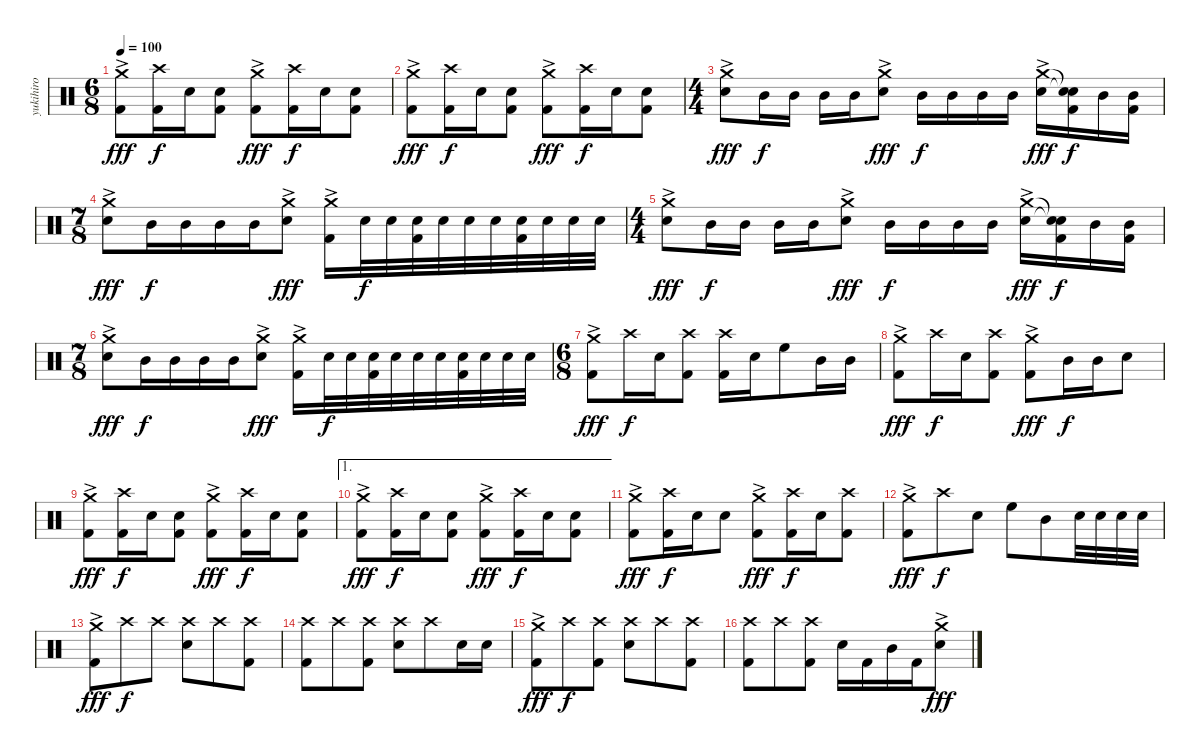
\track ("yukihiro" "yukihiro") {instrument percussion}
\staff {score}
\articulation defaults
\ts (6 8)
\tempo 100
\clef neutral
\ks c
("Crash medium (hit)"{ac} "Kick (hit) 2").8{dy fff} ("Crash high (hit)" "Kick (hit) 2").16{dy f} "Snare (hit) 2".16 ("Snare (hit) 2" "Kick (hit) 2").8 ("Crash medium (hit)"{ac} "Kick (hit) 2").8{dy fff} ("Crash high (hit)" "Kick (hit) 2").16{dy f} "Snare (hit) 2".16 ("Snare (hit) 2" "Kick (hit) 2").8 |
("Crash medium (hit)"{ac} "Kick (hit) 2").8{dy fff} ("Crash high (hit)" "Kick (hit) 2").16{dy f} "Snare (hit) 2".16 ("Snare (hit) 2" "Kick (hit) 2").8 ("Crash medium (hit)"{ac} "Kick (hit) 2").8{dy fff} ("Crash high (hit)" "Kick (hit) 2").16{dy f} "Snare (hit) 2".16 ("Snare (hit) 2" "Kick (hit) 2").8 |
\ts (4 4)
("Crash medium (hit)"{ac} "Snare (hit) 2").8{dy fff} "Mid Tom (hit)".16{dy f} "Mid Tom (hit)".16 "Mid Tom (hit)".16 "Mid Tom (hit)".16 ("Crash medium (hit)"{ac} "Snare (hit) 2").8{dy fff} "Mid Tom (hit)".16{dy f} "Mid Tom (hit)".16 "Mid Tom (hit)".16 "Mid Tom (hit)".16 ("Crash medium (hit)"{ac} "Snare (hit) 2").16{dy fff} ("Snare (hit)"{t} "Snare (hit)"{t} "Kick (hit) 2").16{dy f} "Mid Tom (hit)".16 ("Mid Tom (hit)" "Kick (hit) 2").16 |
\ts (7 8)
("Crash medium (hit)"{ac} "Snare (hit) 2").8{dy fff} "Mid Tom (hit)".16{dy f} "Mid Tom (hit)".16 "Mid Tom (hit)".16 "Mid Tom (hit)".16 ("Crash medium (hit)"{ac} "Snare (hit) 2").8{dy fff} ("Crash medium (hit)"{ac} "Kick (hit) 2").16 "Snare (hit) 2".32{dy f} "Snare (hit) 2".32 ("Snare (hit) 2" "Kick (hit) 2").32 "Snare (hit) 2".32 "Snare (hit) 2".32 "Snare (hit) 2".32 ("Snare (hit) 2" "Kick (hit) 2").32 "Snare (hit) 2".32 "Snare (hit) 2".32 "Snare (hit) 2".32 |
\ts (4 4)
("Crash medium (hit)"{ac} "Snare (hit) 2").8{dy fff} "Mid Tom (hit)".16{dy f} "Mid Tom (hit)".16 "Mid Tom (hit)".16 "Mid Tom (hit)".16 ("Crash medium (hit)"{ac} "Snare (hit) 2").8{dy fff} "Mid Tom (hit)".16{dy f} "Mid Tom (hit)".16 "Mid Tom (hit)".16 "Mid Tom (hit)".16 ("Crash medium (hit)"{ac} "Snare (hit) 2").16{dy fff} ("Snare (hit)"{t} "Snare (hit)"{t} "Kick (hit) 2").16{dy f} "Mid Tom (hit)".16 ("Mid Tom (hit)" "Kick (hit) 2").16 |
\ts (7 8)
("Crash medium (hit)"{ac} "Snare (hit) 2").8{dy fff} "Mid Tom (hit)".16{dy f} "Mid Tom (hit)".16 "Mid Tom (hit)".16 "Mid Tom (hit)".16 ("Crash medium (hit)"{ac} "Snare (hit) 2").8{dy fff} ("Crash medium (hit)"{ac} "Kick (hit) 2").16 "Snare (hit) 2".32{dy f} "Snare (hit) 2".32 ("Snare (hit) 2" "Kick (hit) 2").32 "Snare (hit) 2".32 "Snare (hit) 2".32 "Snare (hit) 2".32 ("Snare (hit) 2" "Kick (hit) 2").32 "Snare (hit) 2".32 "Snare (hit) 2".32 "Snare (hit) 2".32 |
\ts (6 8)
("Crash medium (hit)"{ac} "Kick (hit) 2").8{dy fff} "Crash high (hit)".16{dy f} "Snare (hit) 2".16 ("Crash high (hit)" "Kick (hit) 2").8 ("Crash high (hit)" "Kick (hit) 2").16 "Snare (hit) 2".16 "High Floor Tom (hit)".8 "Mid Tom (hit)".16 "Mid Tom (hit)".16 |
("Crash medium (hit)"{ac} "Kick (hit) 2").8{dy fff} "Crash high (hit)".16{dy f} "Snare (hit) 2".16 ("Crash high (hit)" "Kick (hit) 2").8 ("Crash medium (hit)"{ac} "Kick (hit) 2").8{dy fff} "Mid Tom (hit)".16{dy f} "Mid Tom (hit)".16 "Snare (hit) 2".8 |
("Crash medium (hit)"{ac} "Kick (hit) 2").8{dy fff} ("Crash high (hit)" "Kick (hit) 2").16{dy f} "Snare (hit) 2".16 ("Snare (hit) 2" "Kick (hit) 2").8 ("Crash medium (hit)"{ac} "Kick (hit) 2").8{dy fff} ("Crash high (hit)" "Kick (hit) 2").16{dy f} "Snare (hit) 2".16 ("Snare (hit) 2" "Kick (hit) 2").8 |
\ae 1
("Crash medium (hit)"{ac} "Kick (hit) 2").8{dy fff} ("Crash high (hit)" "Kick (hit) 2").16{dy f} "Snare (hit) 2".16 ("Snare (hit) 2" "Kick (hit) 2").8 ("Crash medium (hit)"{ac} "Kick (hit) 2").8{dy fff} ("Crash high (hit)" "Kick (hit) 2").16{dy f} "Snare (hit) 2".16 ("Snare (hit) 2" "Kick (hit) 2").8 |
("Crash medium (hit)"{ac} "Kick (hit) 2").8{dy fff} ("Crash high (hit)" "Kick (hit) 2").16{dy f} "Snare (hit) 2".16 "Snare (hit) 2".8 ("Crash medium (hit)"{ac} "Kick (hit) 2").8{dy fff} ("Crash high (hit)" "Kick (hit) 2").16{dy f} "Snare (hit) 2".16 ("Crash high (hit)" "Kick (hit) 2").8 |
("Crash medium (hit)"{ac} "Kick (hit) 2").8{dy fff} "Crash high (hit)".8{dy f} "Snare (hit) 2".8 "High Floor Tom (hit)".8 "Mid Tom (hit)".8 "Snare (hit) 2".32 "Snare (hit) 2".32 "Snare (hit) 2".32 "Snare (hit) 2".32 |
("Crash medium (hit)"{ac} "Kick (hit) 2").8{dy fff} "Crash high (hit)".8{dy f} "Crash high (hit)".8 ("Crash high (hit)" "Snare (hit) 2").8 "Crash high (hit)".8 ("Crash high (hit)" "Kick (hit) 2").8 |
("Crash high (hit)" "Kick (hit) 2").8 "Crash high (hit)".8 ("Crash high (hit)" "Kick (hit) 2").8 ("Crash high (hit)" "Snare (hit) 2").8 "Crash high (hit)".8 "Snare (hit) 2".16 "Snare (hit) 2".16 |
("Crash medium (hit)"{ac} "Kick (hit) 2").8{dy fff} "Crash high (hit)".8{dy f} ("Crash high (hit)" "Kick (hit) 2").8 ("Crash high (hit)" "Snare (hit) 2").8 "Crash high (hit)".8 ("Crash high (hit)" "Kick (hit) 2").8 |
("Crash high (hit)" "Kick (hit) 2").8 "Crash high (hit)".8 ("Crash high (hit)" "Kick (hit) 2").8 "Snare (hit) 2".16 "Kick (hit) 2".16 "Mid Tom (hit)".16 "Kick (hit) 2".16 ("Crash medium (hit)"{ac} "Snare (hit) 2").8{dy fff}
